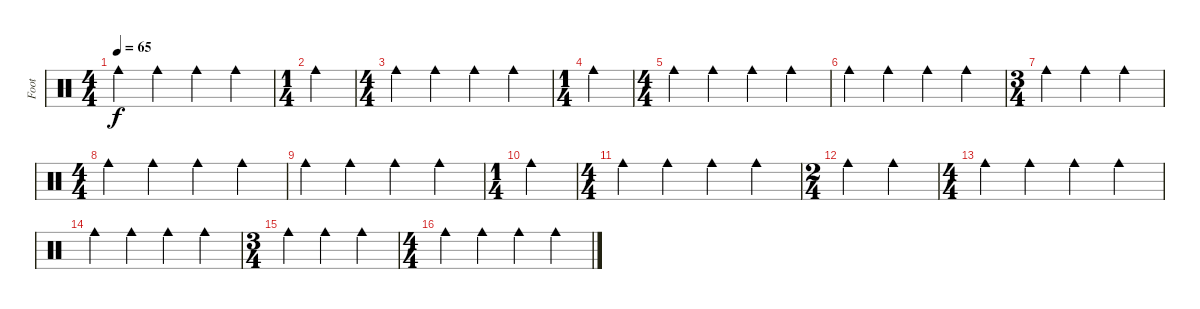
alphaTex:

\track ("Foot" "Foot") {instrument percussion}
\staff {score}
\articulation defaults
\ts (4 4)
\tempo 65
\clef neutral
\ks c "Cowbell medium (hit)".4{dy f} "Cowbell medium (hit)".4 "Cowbell medium (hit)".4 "Cowbell medium (hit)".4
|
\ts (1 4)
"Cowbell medium (hit)".4 |
\ts (4 4)
"Cowbell medium (hit)".4 "Cowbell medium (hit)".4 "Cowbell medium (hit)".4 "Cowbell medium (hit)".4 |
\ts (1 4)
"Cowbell medium (hit)".4 |
\ts (4 4)
"Cowbell medium (hit)".4 "Cowbell medium (hit)".4 "Cowbell medium (hit)".4 "Cowbell medium (hit)".4 |
"Cowbell medium (hit)".4 "Cowbell medium (hit)".4 "Cowbell medium (hit)".4 "Cowbell medium (hit)".4 |
\ts (3 4)
"Cowbell medium (hit)".4 "Cowbell medium (hit)".4 "Cowbell medium (hit)".4 |
\ts (4 4)
"Cowbell medium (hit)".4 "Cowbell medium (hit)".4 "Cowbell medium (hit)".4 "Cowbell medium (hit)".4 |
"Cowbell medium (hit)".4 "Cowbell medium (hit)".4 "Cowbell medium (hit)".4 "Cowbell medium (hit)".4 |
\ts (1 4)
"Cowbell medium (hit)".4 |
\ts (4 4)
"Cowbell medium (hit)".4 "Cowbell medium (hit)".4 "Cowbell medium (hit)".4 "Cowbell medium (hit)".4 |
\ts (2 4)
"Cowbell medium (hit)".4 "Cowbell medium (hit)".4 |
\ts (4 4)
"Cowbell medium (hit)".4 "Cowbell medium (hit)".4 "Cowbell medium (hit)".4 "Cowbell medium (hit)".4 |
"Cowbell medium (hit)".4 "Cowbell medium (hit)".4 "Cowbell medium (hit)".4 "Cowbell medium (hit)".4 |
\ts (3 4)
"Cowbell medium (hit)".4 "Cowbell medium (hit)".4 "Cowbell medium (hit)".4 |
\ts (4 4)
"Cowbell medium (hit)".4 "Cowbell medium (hit)".4 "Cowbell medium (hit)".4 "Cowbell medium (hit)".4
